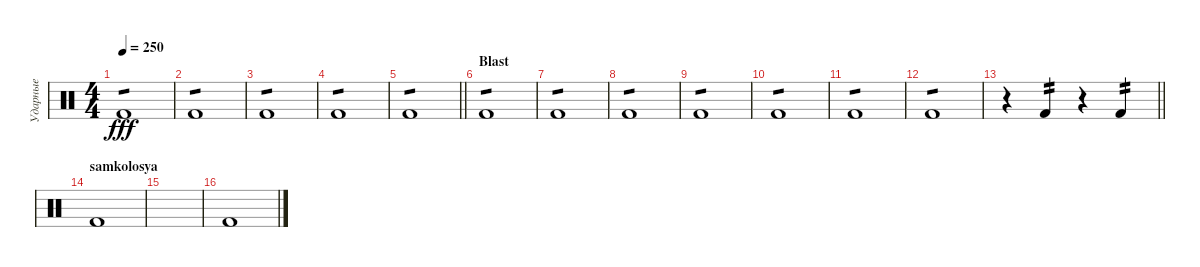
\track ("Ударные" "Ударные") {instrument percussion}
\staff {score}
\articulation defaults
\ts (4 4)
\tempo 250
\clef neutral
\ks c "Kick (hit) 2".1{tp 1 dy fff}
|
"Kick (hit) 2".1{tp 1} |
"Kick (hit) 2".1{tp 1} |
"Kick (hit) 2".1{tp 1} |
\barLineRight lightlight "Kick (hit) 2".1{tp 1}
|
\section ("" "Blast")
"Kick (hit) 2".1{tp 1} |
"Kick (hit) 2".1{tp 1} |
"Kick (hit) 2".1{tp 1} |
"Kick (hit) 2".1{tp 1} |
"Kick (hit) 2".1{tp 1} |
"Kick (hit) 2".1{tp 1} |
"Kick (hit) 2".1{tp 1} |
\barLineRight lightlight
r.4 "Kick (hit) 2".4{tp 2} r.4 "Kick (hit) 2".4{tp 2} |
\section ("" "samkolosya")
"Kick (hit) 2".1 |
|
"Kick (hit) 2".1
